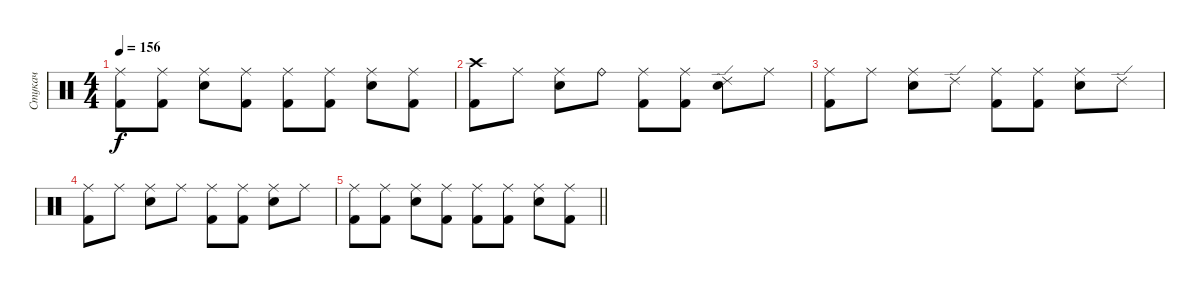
\track ("Стукач" "Стукач") {instrument percussion}
\staff {score}
\articulation defaults
\ts (4 4)
\tempo 156
\clef neutral
\ks c
("Ride (middle)" "Kick (hit) 2").8{dy f} ("Ride (middle)" "Kick (hit) 2").8 ("Ride (middle)" "Snare (hit) 2").8 ("Ride (middle)" "Kick (hit) 2").8 ("Ride (middle)" "Kick (hit) 2").8 ("Ride (middle)" "Kick (hit) 2").8 ("Ride (middle)" "Snare (hit) 2").8 ("Ride (middle)" "Kick (hit) 2").8 |
("Crash high (hit)" "Kick (hit) 2").8 "Ride (middle)".8 ("Ride (middle)" "Snare (hit) 2").8 "Ride (bell)".8 ("Ride (middle)" "Kick (hit) 2").8 ("Ride (middle)" "Kick (hit) 2").8 ("Ride (edge) 2" "Snare (hit) 2").8 "Ride (middle)".8 |
("Ride (middle)" "Kick (hit) 2").8 "Ride (middle)".8 ("Ride (middle)" "Snare (hit) 2").8 "Ride (edge) 2".8 ("Ride (middle)" "Kick (hit) 2").8 ("Ride (middle)" "Kick (hit) 2").8 ("Ride (middle)" "Snare (hit) 2").8 "Ride (edge) 2".8 |
("Ride (middle)" "Kick (hit) 2").8 "Ride (middle)".8 ("Ride (middle)" "Snare (hit) 2").8 "Ride (middle)".8 ("Ride (middle)" "Kick (hit) 2").8 ("Ride (middle)" "Kick (hit) 2").8 ("Ride (middle)" "Snare (hit) 2").8 "Ride (middle)".8 |
\barLineRight lightlight
("Ride (middle)" "Kick (hit) 2").8 ("Ride (middle)" "Kick (hit) 2").8 ("Ride (middle)" "Snare (hit) 2").8 ("Ride (middle)" "Kick (hit) 2").8 ("Ride (middle)" "Kick (hit) 2").8 ("Ride (middle)" "Kick (hit) 2").8 ("Ride (middle)" "Snare (hit) 2").8 ("Ride (middle)" "Kick (hit) 2").8
